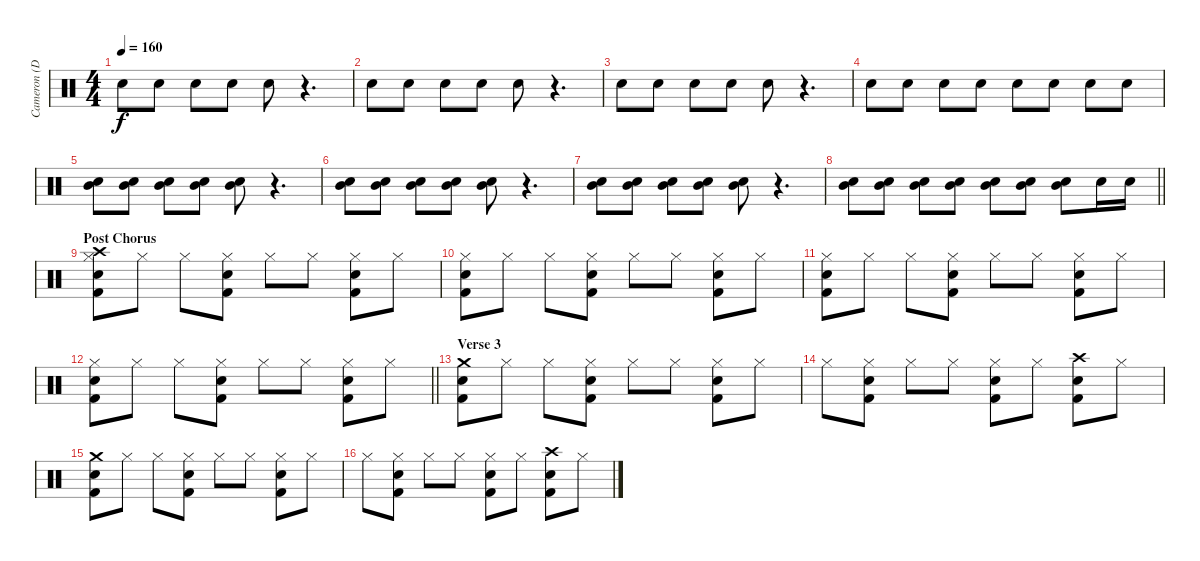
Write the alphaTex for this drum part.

\track ("Cameron (Drums)" "Cameron (D") {instrument percussion}
\staff {score}
\articulation defaults
\ts (4 4)
\tempo 160
\clef neutral
\ks c "Snare (hit) 2".8{dy f} "Snare (hit) 2".8 "Snare (hit) 2".8 "Snare (hit) 2".8 "Snare (hit) 2".8
r.4{d} |
"Snare (hit) 2".8 "Snare (hit) 2".8 "Snare (hit) 2".8 "Snare (hit) 2".8 "Snare (hit) 2".8 r.4{d} |
"Snare (hit) 2".8 "Snare (hit) 2".8 "Snare (hit) 2".8 "Snare (hit) 2".8 "Snare (hit) 2".8 r.4{d} |
"Snare (hit) 2".8 "Snare (hit) 2".8 "Snare (hit) 2".8 "Snare (hit) 2".8 "Snare (hit) 2".8 "Snare (hit) 2".8 "Snare (hit) 2".8 "Snare (hit) 2".8 |
("Snare (hit) 2" "Mid Tom (hit)").8 ("Snare (hit) 2" "Mid Tom (hit)").8 ("Snare (hit) 2" "Mid Tom (hit)").8 ("Snare (hit) 2" "Mid Tom (hit)").8 ("Snare (hit) 2" "Mid Tom (hit)").8 r.4{d} |
("Snare (hit) 2" "Mid Tom (hit)").8 ("Snare (hit) 2" "Mid Tom (hit)").8 ("Snare (hit) 2" "Mid Tom (hit)").8 ("Snare (hit) 2" "Mid Tom (hit)").8 ("Snare (hit) 2" "Mid Tom (hit)").8 r.4{d} |
("Snare (hit) 2" "Mid Tom (hit)").8 ("Snare (hit) 2" "Mid Tom (hit)").8 ("Snare (hit) 2" "Mid Tom (hit)").8 ("Snare (hit) 2" "Mid Tom (hit)").8 ("Snare (hit) 2" "Mid Tom (hit)").8 r.4{d} |
\barLineRight lightlight
("Snare (hit) 2" "Mid Tom (hit)").8 ("Snare (hit) 2" "Mid Tom (hit)").8 ("Snare (hit) 2" "Mid Tom (hit)").8 ("Snare (hit) 2" "Mid Tom (hit)").8 ("Snare (hit) 2" "Mid Tom (hit)").8 ("Snare (hit) 2" "Mid Tom (hit)").8 ("Snare (hit) 2" "Mid Tom (hit)").8 "Snare (hit) 2".16 "Snare (hit) 2".16 |
\section ("" "Post Chorus")
("Crash high (hit)" "Hi-Hat (closed)" "Snare (hit) 2" "Kick (hit) 2").8 "Hi-Hat (closed)".8 "Hi-Hat (closed)".8 ("Hi-Hat (closed)" "Snare (hit) 2" "Kick (hit) 2").8 "Hi-Hat (closed)".8 "Hi-Hat (closed)".8 ("Hi-Hat (closed)" "Snare (hit) 2" "Kick (hit) 2").8 "Hi-Hat (closed)".8 |
("Hi-Hat (closed)" "Snare (hit) 2" "Kick (hit) 2").8 "Hi-Hat (closed)".8 "Hi-Hat (closed)".8 ("Hi-Hat (closed)" "Snare (hit) 2" "Kick (hit) 2").8 "Hi-Hat (closed)".8 "Hi-Hat (closed)".8 ("Hi-Hat (closed)" "Snare (hit) 2" "Kick (hit) 2").8 "Hi-Hat (closed)".8 |
("Hi-Hat (closed)" "Snare (hit) 2" "Kick (hit) 2").8 "Hi-Hat (closed)".8 "Hi-Hat (closed)".8 ("Hi-Hat (closed)" "Snare (hit) 2" "Kick (hit) 2").8 "Hi-Hat (closed)".8 "Hi-Hat (closed)".8 ("Hi-Hat (closed)" "Snare (hit) 2" "Kick (hit) 2").8 "Hi-Hat (closed)".8 |
\barLineRight lightlight
("Hi-Hat (closed)" "Snare (hit) 2" "Kick (hit) 2").8 "Hi-Hat (closed)".8 "Hi-Hat (closed)".8 ("Hi-Hat (closed)" "Snare (hit) 2" "Kick (hit) 2").8 "Hi-Hat (closed)".8 "Hi-Hat (closed)".8 ("Hi-Hat (closed)" "Snare (hit) 2" "Kick (hit) 2").8 "Hi-Hat (closed)".8 |
\section ("" "Verse 3")
("Crash medium (hit)" "Snare (hit) 2" "Kick (hit) 2").8 "Hi-Hat (closed)".8 "Hi-Hat (closed)".8 ("Hi-Hat (closed)" "Snare (hit) 2" "Kick (hit) 2").8 "Hi-Hat (closed)".8 "Hi-Hat (closed)".8 ("Hi-Hat (closed)" "Snare (hit) 2" "Kick (hit) 2").8 "Hi-Hat (closed)".8 |
"Hi-Hat (closed)".8 ("Hi-Hat (closed)" "Snare (hit) 2" "Kick (hit) 2").8 "Hi-Hat (closed)".8 "Hi-Hat (closed)".8 ("Hi-Hat (closed)" "Snare (hit) 2" "Kick (hit) 2").8 "Hi-Hat (closed)".8 ("Crash high (hit)" "Snare (hit) 2" "Kick (hit) 2").8 "Hi-Hat (closed)".8 |
("Crash medium (hit)" "Snare (hit) 2" "Kick (hit) 2").8 "Hi-Hat (closed)".8 "Hi-Hat (closed)".8 ("Hi-Hat (closed)" "Snare (hit) 2" "Kick (hit) 2").8 "Hi-Hat (closed)".8 "Hi-Hat (closed)".8 ("Hi-Hat (closed)" "Snare (hit) 2" "Kick (hit) 2").8 "Hi-Hat (closed)".8 |
"Hi-Hat (closed)".8 ("Hi-Hat (closed)" "Snare (hit) 2" "Kick (hit) 2").8 "Hi-Hat (closed)".8 "Hi-Hat (closed)".8 ("Hi-Hat (closed)" "Snare (hit) 2" "Kick (hit) 2").8 "Hi-Hat (closed)".8 ("Crash high (hit)" "Snare (hit) 2" "Kick (hit) 2").8 "Hi-Hat (closed)".8
